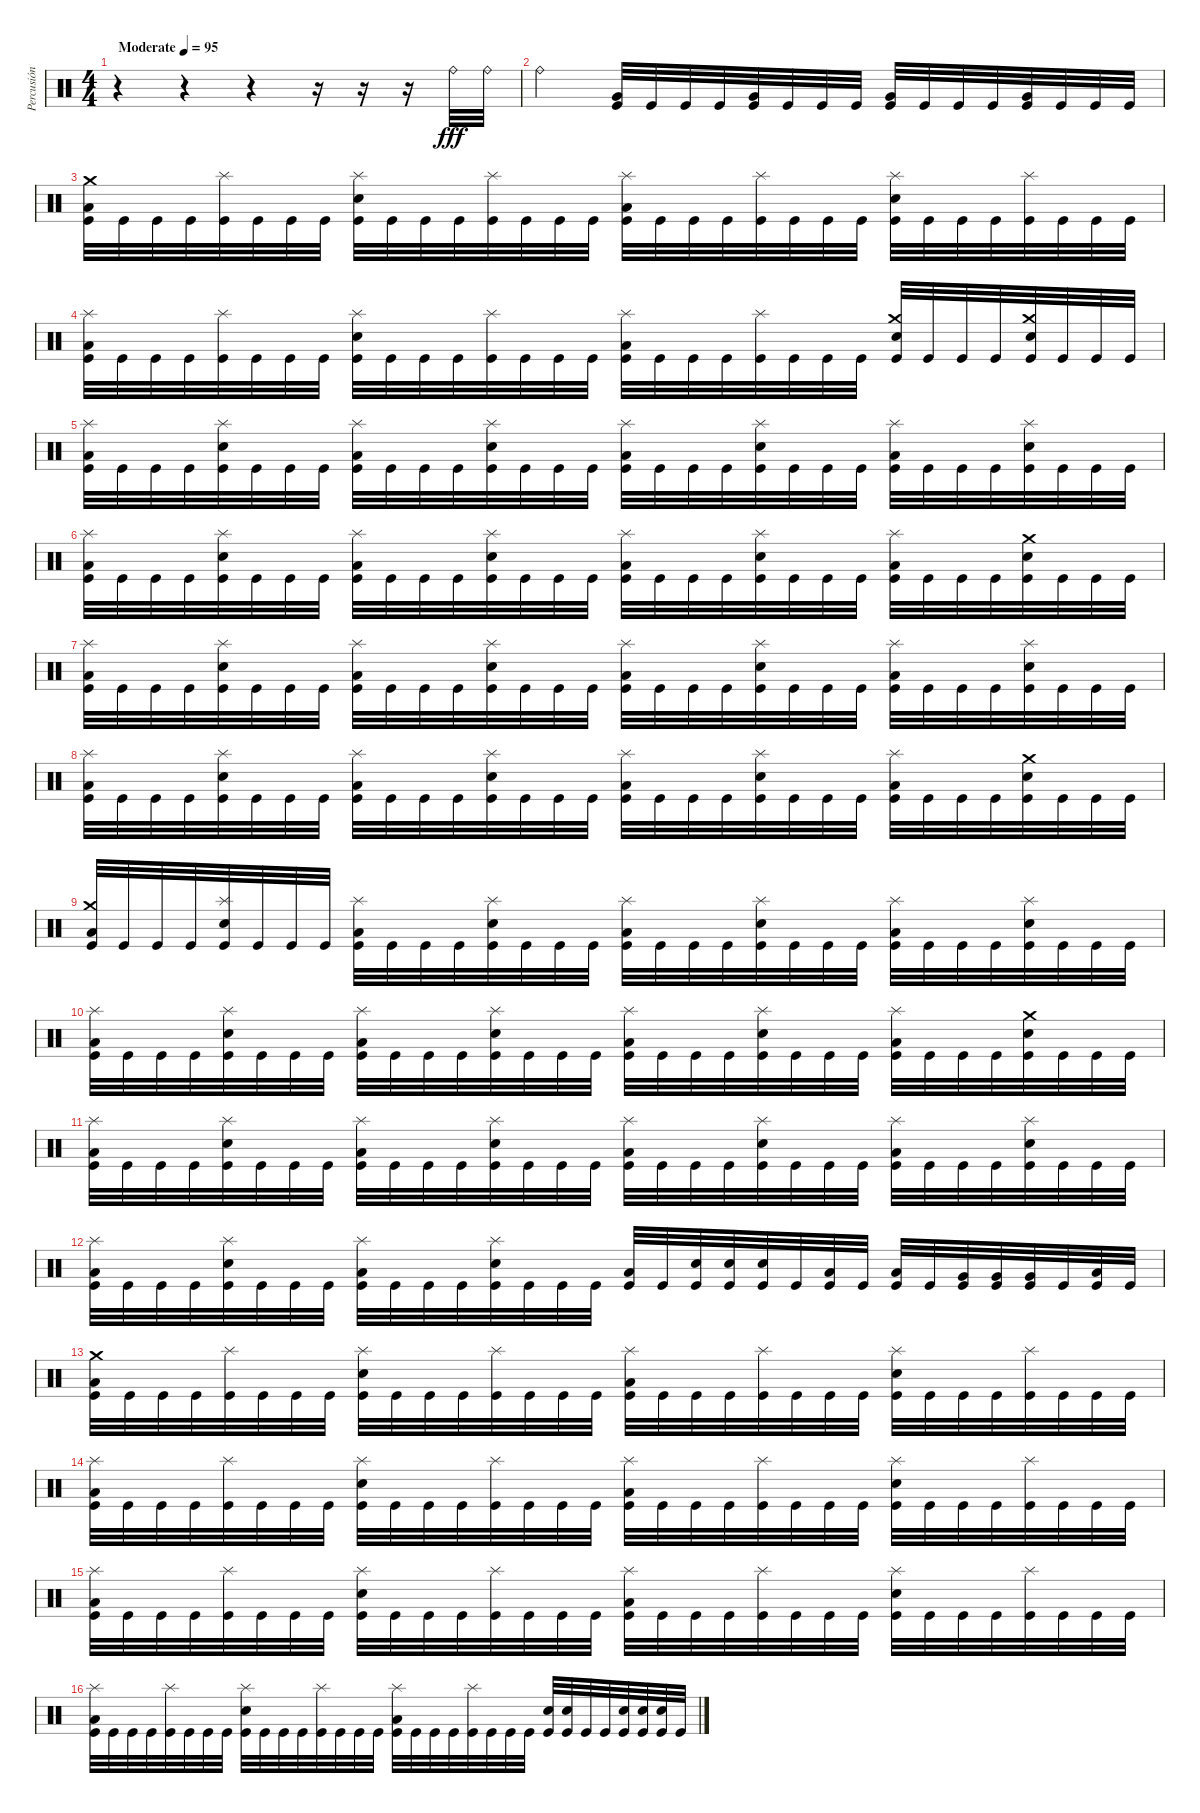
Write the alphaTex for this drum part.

\track ("Percusión" "Percusión") {instrument percussion}
\staff {score}
\articulation defaults
\ts (4 4)
\tempo (95 "Moderate")
\clef neutral
\ks c
r.4{dy fff} r.4 r.4 r.16 r.16 r.16 "Ride (bell)".32 "Ride (bell)".32 |
"Ride (bell)".2 ("Very Low Tom (hit)" "Kick (hit)").32 "Kick (hit)".32 "Kick (hit)".32 "Kick (hit)".32 ("Very Low Tom (hit)" "Kick (hit)").32 "Kick (hit)".32 "Kick (hit)".32 "Kick (hit)".32 ("Very Low Tom (hit)" "Kick (hit)").32 "Kick (hit)".32 "Kick (hit)".32 "Kick (hit)".32 ("Very Low Tom (hit)" "Kick (hit)").32 "Kick (hit)".32 "Kick (hit)".32 "Kick (hit)".32 |
("Crash medium (hit)" "Low Floor Tom (hit)" "Kick (hit)").32 "Kick (hit)".32 "Kick (hit)".32 "Kick (hit)".32 ("Splash (hit)" "Kick (hit)").32 "Kick (hit)".32 "Kick (hit)".32 "Kick (hit)".32 ("Splash (hit)" "Snare (hit) 2" "Kick (hit)").32 "Kick (hit)".32 "Kick (hit)".32 "Kick (hit)".32 ("Splash (hit)" "Kick (hit)").32 "Kick (hit)".32 "Kick (hit)".32 "Kick (hit)".32 ("Splash (hit)" "Low Floor Tom (hit)" "Kick (hit)").32 "Kick (hit)".32 "Kick (hit)".32 "Kick (hit)".32 ("Splash (hit)" "Kick (hit)").32 "Kick (hit)".32 "Kick (hit)".32 "Kick (hit)".32 ("Splash (hit)" "Snare (hit) 2" "Kick (hit)").32 "Kick (hit)".32 "Kick (hit)".32 "Kick (hit)".32 ("Splash (hit)" "Kick (hit)").32 "Kick (hit)".32 "Kick (hit)".32 "Kick (hit)".32 |
("Splash (hit)" "Low Floor Tom (hit)" "Kick (hit)").32 "Kick (hit)".32 "Kick (hit)".32 "Kick (hit)".32 ("Splash (hit)" "Kick (hit)").32 "Kick (hit)".32 "Kick (hit)".32 "Kick (hit)".32 ("Splash (hit)" "Snare (hit) 2" "Kick (hit)").32 "Kick (hit)".32 "Kick (hit)".32 "Kick (hit)".32 ("Splash (hit)" "Kick (hit)").32 "Kick (hit)".32 "Kick (hit)".32 "Kick (hit)".32 ("Splash (hit)" "Low Floor Tom (hit)" "Kick (hit)").32 "Kick (hit)".32 "Kick (hit)".32 "Kick (hit)".32 ("Splash (hit)" "Kick (hit)").32 "Kick (hit)".32 "Kick (hit)".32 "Kick (hit)".32 ("Crash medium (hit)" "Snare (hit) 2" "Kick (hit)").32 "Kick (hit)".32 "Kick (hit)".32 "Kick (hit)".32 ("Crash medium (hit)" "Snare (hit) 2" "Kick (hit)").32 "Kick (hit)".32 "Kick (hit)".32 "Kick (hit)".32 |
("Splash (hit)" "Low Floor Tom (hit)" "Kick (hit)").32 "Kick (hit)".32 "Kick (hit)".32 "Kick (hit)".32 ("Splash (hit)" "Snare (hit) 2" "Kick (hit)").32 "Kick (hit)".32 "Kick (hit)".32 "Kick (hit)".32 ("Splash (hit)" "Low Floor Tom (hit)" "Kick (hit)").32 "Kick (hit)".32 "Kick (hit)".32 "Kick (hit)".32 ("Splash (hit)" "Snare (hit) 2" "Kick (hit)").32 "Kick (hit)".32 "Kick (hit)".32 "Kick (hit)".32 ("Splash (hit)" "Low Floor Tom (hit)" "Kick (hit)").32 "Kick (hit)".32 "Kick (hit)".32 "Kick (hit)".32 ("Splash (hit)" "Snare (hit) 2" "Kick (hit)").32 "Kick (hit)".32 "Kick (hit)".32 "Kick (hit)".32 ("Splash (hit)" "Low Floor Tom (hit)" "Kick (hit)").32 "Kick (hit)".32 "Kick (hit)".32 "Kick (hit)".32 ("Splash (hit)" "Snare (hit) 2" "Kick (hit)").32 "Kick (hit)".32 "Kick (hit)".32 "Kick (hit)".32 |
("Splash (hit)" "Low Floor Tom (hit)" "Kick (hit)").32 "Kick (hit)".32 "Kick (hit)".32 "Kick (hit)".32 ("Splash (hit)" "Snare (hit) 2" "Kick (hit)").32 "Kick (hit)".32 "Kick (hit)".32 "Kick (hit)".32 ("Splash (hit)" "Low Floor Tom (hit)" "Kick (hit)").32 "Kick (hit)".32 "Kick (hit)".32 "Kick (hit)".32 ("Splash (hit)" "Snare (hit) 2" "Kick (hit)").32 "Kick (hit)".32 "Kick (hit)".32 "Kick (hit)".32 ("Splash (hit)" "Low Floor Tom (hit)" "Kick (hit)").32 "Kick (hit)".32 "Kick (hit)".32 "Kick (hit)".32 ("Splash (hit)" "Snare (hit) 2" "Kick (hit)").32 "Kick (hit)".32 "Kick (hit)".32 "Kick (hit)".32 ("Splash (hit)" "Low Floor Tom (hit)" "Kick (hit)").32 "Kick (hit)".32 "Kick (hit)".32 "Kick (hit)".32 ("Crash medium (hit)" "Snare (hit) 2" "Kick (hit)").32 "Kick (hit)".32 "Kick (hit)".32 "Kick (hit)".32 |
("Splash (hit)" "Low Floor Tom (hit)" "Kick (hit)").32 "Kick (hit)".32 "Kick (hit)".32 "Kick (hit)".32 ("Splash (hit)" "Snare (hit) 2" "Kick (hit)").32 "Kick (hit)".32 "Kick (hit)".32 "Kick (hit)".32 ("Splash (hit)" "Low Floor Tom (hit)" "Kick (hit)").32 "Kick (hit)".32 "Kick (hit)".32 "Kick (hit)".32 ("Splash (hit)" "Snare (hit) 2" "Kick (hit)").32 "Kick (hit)".32 "Kick (hit)".32 "Kick (hit)".32 ("Splash (hit)" "Low Floor Tom (hit)" "Kick (hit)").32 "Kick (hit)".32 "Kick (hit)".32 "Kick (hit)".32 ("Splash (hit)" "Snare (hit) 2" "Kick (hit)").32 "Kick (hit)".32 "Kick (hit)".32 "Kick (hit)".32 ("Splash (hit)" "Low Floor Tom (hit)" "Kick (hit)").32 "Kick (hit)".32 "Kick (hit)".32 "Kick (hit)".32 ("Splash (hit)" "Snare (hit) 2" "Kick (hit)").32 "Kick (hit)".32 "Kick (hit)".32 "Kick (hit)".32 |
("Splash (hit)" "Low Floor Tom (hit)" "Kick (hit)").32 "Kick (hit)".32 "Kick (hit)".32 "Kick (hit)".32 ("Splash (hit)" "Snare (hit) 2" "Kick (hit)").32 "Kick (hit)".32 "Kick (hit)".32 "Kick (hit)".32 ("Splash (hit)" "Low Floor Tom (hit)" "Kick (hit)").32 "Kick (hit)".32 "Kick (hit)".32 "Kick (hit)".32 ("Splash (hit)" "Snare (hit) 2" "Kick (hit)").32 "Kick (hit)".32 "Kick (hit)".32 "Kick (hit)".32 ("Splash (hit)" "Low Floor Tom (hit)" "Kick (hit)").32 "Kick (hit)".32 "Kick (hit)".32 "Kick (hit)".32 ("Splash (hit)" "Snare (hit) 2" "Kick (hit)").32 "Kick (hit)".32 "Kick (hit)".32 "Kick (hit)".32 ("Splash (hit)" "Low Floor Tom (hit)" "Kick (hit)").32 "Kick (hit)".32 "Kick (hit)".32 "Kick (hit)".32 ("Crash medium (hit)" "Snare (hit) 2" "Kick (hit)").32 "Kick (hit)".32 "Kick (hit)".32 "Kick (hit)".32 |
("Crash medium (hit)" "Low Floor Tom (hit)" "Kick (hit)").32 "Kick (hit)".32 "Kick (hit)".32 "Kick (hit)".32 ("Splash (hit)" "Snare (hit) 2" "Kick (hit)").32 "Kick (hit)".32 "Kick (hit)".32 "Kick (hit)".32 ("Splash (hit)" "Low Floor Tom (hit)" "Kick (hit)").32 "Kick (hit)".32 "Kick (hit)".32 "Kick (hit)".32 ("Splash (hit)" "Snare (hit) 2" "Kick (hit)").32 "Kick (hit)".32 "Kick (hit)".32 "Kick (hit)".32 ("Splash (hit)" "Low Floor Tom (hit)" "Kick (hit)").32 "Kick (hit)".32 "Kick (hit)".32 "Kick (hit)".32 ("Splash (hit)" "Snare (hit) 2" "Kick (hit)").32 "Kick (hit)".32 "Kick (hit)".32 "Kick (hit)".32 ("Splash (hit)" "Low Floor Tom (hit)" "Kick (hit)").32 "Kick (hit)".32 "Kick (hit)".32 "Kick (hit)".32 ("Splash (hit)" "Snare (hit) 2" "Kick (hit)").32 "Kick (hit)".32 "Kick (hit)".32 "Kick (hit)".32 |
("Splash (hit)" "Low Floor Tom (hit)" "Kick (hit)").32 "Kick (hit)".32 "Kick (hit)".32 "Kick (hit)".32 ("Splash (hit)" "Snare (hit) 2" "Kick (hit)").32 "Kick (hit)".32 "Kick (hit)".32 "Kick (hit)".32 ("Splash (hit)" "Low Floor Tom (hit)" "Kick (hit)").32 "Kick (hit)".32 "Kick (hit)".32 "Kick (hit)".32 ("Splash (hit)" "Snare (hit) 2" "Kick (hit)").32 "Kick (hit)".32 "Kick (hit)".32 "Kick (hit)".32 ("Splash (hit)" "Low Floor Tom (hit)" "Kick (hit)").32 "Kick (hit)".32 "Kick (hit)".32 "Kick (hit)".32 ("Splash (hit)" "Snare (hit) 2" "Kick (hit)").32 "Kick (hit)".32 "Kick (hit)".32 "Kick (hit)".32 ("Splash (hit)" "Low Floor Tom (hit)" "Kick (hit)").32 "Kick (hit)".32 "Kick (hit)".32 "Kick (hit)".32 ("Crash medium (hit)" "Snare (hit) 2" "Kick (hit)").32 "Kick (hit)".32 "Kick (hit)".32 "Kick (hit)".32 |
("Splash (hit)" "Low Floor Tom (hit)" "Kick (hit)").32 "Kick (hit)".32 "Kick (hit)".32 "Kick (hit)".32 ("Splash (hit)" "Snare (hit) 2" "Kick (hit)").32 "Kick (hit)".32 "Kick (hit)".32 "Kick (hit)".32 ("Splash (hit)" "Low Floor Tom (hit)" "Kick (hit)").32 "Kick (hit)".32 "Kick (hit)".32 "Kick (hit)".32 ("Splash (hit)" "Snare (hit) 2" "Kick (hit)").32 "Kick (hit)".32 "Kick (hit)".32 "Kick (hit)".32 ("Splash (hit)" "Low Floor Tom (hit)" "Kick (hit)").32 "Kick (hit)".32 "Kick (hit)".32 "Kick (hit)".32 ("Splash (hit)" "Snare (hit) 2" "Kick (hit)").32 "Kick (hit)".32 "Kick (hit)".32 "Kick (hit)".32 ("Splash (hit)" "Low Floor Tom (hit)" "Kick (hit)").32 "Kick (hit)".32 "Kick (hit)".32 "Kick (hit)".32 ("Splash (hit)" "Snare (hit) 2" "Kick (hit)").32 "Kick (hit)".32 "Kick (hit)".32 "Kick (hit)".32 |
("Splash (hit)" "Low Floor Tom (hit)" "Kick (hit)").32 "Kick (hit)".32 "Kick (hit)".32 "Kick (hit)".32 ("Splash (hit)" "Snare (hit) 2" "Kick (hit)").32 "Kick (hit)".32 "Kick (hit)".32 "Kick (hit)".32 ("Splash (hit)" "Low Floor Tom (hit)" "Kick (hit)").32 "Kick (hit)".32 "Kick (hit)".32 "Kick (hit)".32 ("Splash (hit)" "Snare (hit) 2" "Kick (hit)").32 "Kick (hit)".32 "Kick (hit)".32 "Kick (hit)".32 ("Low Floor Tom (hit)" "Kick (hit)").32 "Kick (hit)".32 ("Snare (hit) 2" "Kick (hit)").32 ("Snare (hit) 2" "Kick (hit)").32 ("Snare (hit) 2" "Kick (hit)").32 "Kick (hit)".32 ("Low Floor Tom (hit)" "Kick (hit)").32 "Kick (hit)".32 ("Low Floor Tom (hit)" "Kick (hit)").32 "Kick (hit)".32 ("Very Low Tom (hit)" "Kick (hit)").32 ("Very Low Tom (hit)" "Kick (hit)").32 ("Very Low Tom (hit)" "Kick (hit)").32 "Kick (hit)".32 ("Low Floor Tom (hit)" "Kick (hit)").32 "Kick (hit)".32 |
("Crash medium (hit)" "Low Floor Tom (hit)" "Kick (hit)").32 "Kick (hit)".32 "Kick (hit)".32 "Kick (hit)".32 ("Splash (hit)" "Kick (hit)").32 "Kick (hit)".32 "Kick (hit)".32 "Kick (hit)".32 ("Splash (hit)" "Snare (hit) 2" "Kick (hit)").32 "Kick (hit)".32 "Kick (hit)".32 "Kick (hit)".32 ("Splash (hit)" "Kick (hit)").32 "Kick (hit)".32 "Kick (hit)".32 "Kick (hit)".32 ("Splash (hit)" "Low Floor Tom (hit)" "Kick (hit)").32 "Kick (hit)".32 "Kick (hit)".32 "Kick (hit)".32 ("Splash (hit)" "Kick (hit)").32 "Kick (hit)".32 "Kick (hit)".32 "Kick (hit)".32 ("Splash (hit)" "Snare (hit) 2" "Kick (hit)").32 "Kick (hit)".32 "Kick (hit)".32 "Kick (hit)".32 ("Splash (hit)" "Kick (hit)").32 "Kick (hit)".32 "Kick (hit)".32 "Kick (hit)".32 |
("Splash (hit)" "Low Floor Tom (hit)" "Kick (hit)").32 "Kick (hit)".32 "Kick (hit)".32 "Kick (hit)".32 ("Splash (hit)" "Kick (hit)").32 "Kick (hit)".32 "Kick (hit)".32 "Kick (hit)".32 ("Splash (hit)" "Snare (hit) 2" "Kick (hit)").32 "Kick (hit)".32 "Kick (hit)".32 "Kick (hit)".32 ("Splash (hit)" "Kick (hit)").32 "Kick (hit)".32 "Kick (hit)".32 "Kick (hit)".32 ("Splash (hit)" "Low Floor Tom (hit)" "Kick (hit)").32 "Kick (hit)".32 "Kick (hit)".32 "Kick (hit)".32 ("Splash (hit)" "Kick (hit)").32 "Kick (hit)".32 "Kick (hit)".32 "Kick (hit)".32 ("Splash (hit)" "Snare (hit) 2" "Kick (hit)").32 "Kick (hit)".32 "Kick (hit)".32 "Kick (hit)".32 ("Splash (hit)" "Kick (hit)").32 "Kick (hit)".32 "Kick (hit)".32 "Kick (hit)".32 |
("Splash (hit)" "Low Floor Tom (hit)" "Kick (hit)").32 "Kick (hit)".32 "Kick (hit)".32 "Kick (hit)".32 ("Splash (hit)" "Kick (hit)").32 "Kick (hit)".32 "Kick (hit)".32 "Kick (hit)".32 ("Splash (hit)" "Snare (hit) 2" "Kick (hit)").32 "Kick (hit)".32 "Kick (hit)".32 "Kick (hit)".32 ("Splash (hit)" "Kick (hit)").32 "Kick (hit)".32 "Kick (hit)".32 "Kick (hit)".32 ("Splash (hit)" "Low Floor Tom (hit)" "Kick (hit)").32 "Kick (hit)".32 "Kick (hit)".32 "Kick (hit)".32 ("Splash (hit)" "Kick (hit)").32 "Kick (hit)".32 "Kick (hit)".32 "Kick (hit)".32 ("Splash (hit)" "Snare (hit) 2" "Kick (hit)").32 "Kick (hit)".32 "Kick (hit)".32 "Kick (hit)".32 ("Splash (hit)" "Kick (hit)").32 "Kick (hit)".32 "Kick (hit)".32 "Kick (hit)".32 |
("Splash (hit)" "Low Floor Tom (hit)" "Kick (hit)").32 "Kick (hit)".32 "Kick (hit)".32 "Kick (hit)".32 ("Splash (hit)" "Kick (hit)").32 "Kick (hit)".32 "Kick (hit)".32 "Kick (hit)".32 ("Splash (hit)" "Snare (hit) 2" "Kick (hit)").32 "Kick (hit)".32 "Kick (hit)".32 "Kick (hit)".32 ("Splash (hit)" "Kick (hit)").32 "Kick (hit)".32 "Kick (hit)".32 "Kick (hit)".32 ("Splash (hit)" "Low Floor Tom (hit)" "Kick (hit)").32 "Kick (hit)".32 "Kick (hit)".32 "Kick (hit)".32 ("Splash (hit)" "Kick (hit)").32 "Kick (hit)".32 "Kick (hit)".32 "Kick (hit)".32 ("Snare (hit) 2" "Kick (hit)").32 ("Snare (hit) 2" "Kick (hit)").32 "Kick (hit)".32 "Kick (hit)".32 ("Snare (hit) 2" "Kick (hit)").32 ("Snare (hit) 2" "Kick (hit)").32 ("Snare (hit) 2" "Kick (hit)").32 "Kick (hit)".32
